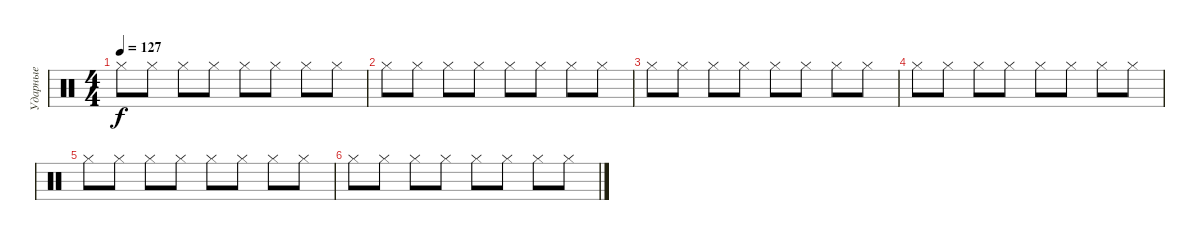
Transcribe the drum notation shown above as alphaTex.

\track ("Ударные" "Ударные") {instrument percussion}
\staff {score}
\articulation defaults
\ts (4 4)
\tempo 127
\clef neutral
\ks c "Hi-Hat (closed)".8{dy f} "Hi-Hat (closed)".8 "Hi-Hat (closed)".8 "Hi-Hat (closed)".8 "Hi-Hat (closed)".8 "Hi-Hat (closed)".8 "Hi-Hat (closed)".8 "Hi-Hat (closed)".8
|
"Hi-Hat (closed)".8 "Hi-Hat (closed)".8 "Hi-Hat (closed)".8 "Hi-Hat (closed)".8 "Hi-Hat (closed)".8 "Hi-Hat (closed)".8 "Hi-Hat (closed)".8 "Hi-Hat (closed)".8 |
"Hi-Hat (closed)".8 "Hi-Hat (closed)".8 "Hi-Hat (closed)".8 "Hi-Hat (closed)".8 "Hi-Hat (closed)".8 "Hi-Hat (closed)".8 "Hi-Hat (closed)".8 "Hi-Hat (closed)".8 |
"Hi-Hat (closed)".8 "Hi-Hat (closed)".8 "Hi-Hat (closed)".8 "Hi-Hat (closed)".8 "Hi-Hat (closed)".8 "Hi-Hat (closed)".8 "Hi-Hat (closed)".8 "Hi-Hat (closed)".8 |
"Hi-Hat (closed)".8 "Hi-Hat (closed)".8 "Hi-Hat (closed)".8 "Hi-Hat (closed)".8 "Hi-Hat (closed)".8 "Hi-Hat (closed)".8 "Hi-Hat (closed)".8 "Hi-Hat (closed)".8 |
"Hi-Hat (closed)".8 "Hi-Hat (closed)".8 "Hi-Hat (closed)".8 "Hi-Hat (closed)".8 "Hi-Hat (closed)".8 "Hi-Hat (closed)".8 "Hi-Hat (closed)".8 "Hi-Hat (closed)".8
